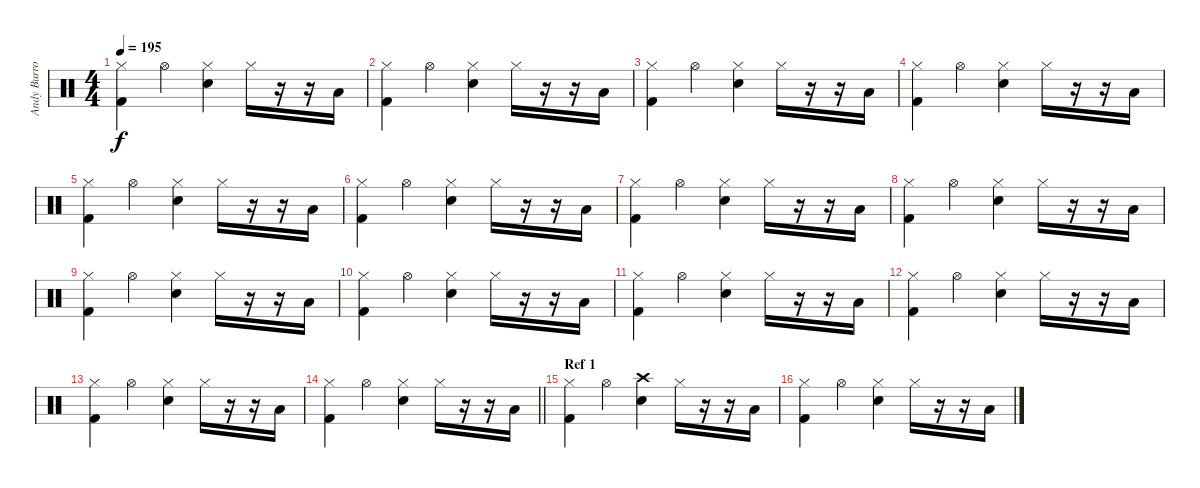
\track ("Andy Burrows (drums)" "Andy Burro") {instrument percussion}
\staff {score}
\articulation defaults
\ts (4 4)
\tempo 195
\clef neutral
\ks c
("Hi-Hat (closed)" "Kick (hit) 2").4{dy f} "Hi-Hat (open)".4 ("Hi-Hat (closed)" "Electric Snare (hit)").4 "Hi-Hat (closed)".16 r.16 r.16 "Low Floor Tom (hit)".16 |
("Hi-Hat (closed)" "Kick (hit) 2").4 "Hi-Hat (open)".4 ("Hi-Hat (closed)" "Electric Snare (hit)").4 "Hi-Hat (closed)".16 r.16 r.16 "Low Floor Tom (hit)".16 |
("Hi-Hat (closed)" "Kick (hit) 2").4 "Hi-Hat (open)".4 ("Hi-Hat (closed)" "Electric Snare (hit)").4 "Hi-Hat (closed)".16 r.16 r.16 "Low Floor Tom (hit)".16 |
("Hi-Hat (closed)" "Kick (hit) 2").4 "Hi-Hat (open)".4 ("Hi-Hat (closed)" "Electric Snare (hit)").4 "Hi-Hat (closed)".16 r.16 r.16 "Low Floor Tom (hit)".16 |
("Hi-Hat (closed)" "Kick (hit) 2").4 "Hi-Hat (open)".4 ("Hi-Hat (closed)" "Electric Snare (hit)").4 "Hi-Hat (closed)".16 r.16 r.16 "Low Floor Tom (hit)".16 |
("Hi-Hat (closed)" "Kick (hit) 2").4 "Hi-Hat (open)".4 ("Hi-Hat (closed)" "Electric Snare (hit)").4 "Hi-Hat (closed)".16 r.16 r.16 "Low Floor Tom (hit)".16 |
("Hi-Hat (closed)" "Kick (hit) 2").4 "Hi-Hat (open)".4 ("Hi-Hat (closed)" "Electric Snare (hit)").4 "Hi-Hat (closed)".16 r.16 r.16 "Low Floor Tom (hit)".16 |
("Hi-Hat (closed)" "Kick (hit) 2").4 "Hi-Hat (open)".4 ("Hi-Hat (closed)" "Electric Snare (hit)").4 "Hi-Hat (closed)".16 r.16 r.16 "Low Floor Tom (hit)".16 |
("Hi-Hat (closed)" "Kick (hit) 2").4 "Hi-Hat (open)".4 ("Hi-Hat (closed)" "Electric Snare (hit)").4 "Hi-Hat (closed)".16 r.16 r.16 "Low Floor Tom (hit)".16 |
("Hi-Hat (closed)" "Kick (hit) 2").4 "Hi-Hat (open)".4 ("Hi-Hat (closed)" "Electric Snare (hit)").4 "Hi-Hat (closed)".16 r.16 r.16 "Low Floor Tom (hit)".16 |
("Hi-Hat (closed)" "Kick (hit) 2").4 "Hi-Hat (open)".4 ("Hi-Hat (closed)" "Electric Snare (hit)").4 "Hi-Hat (closed)".16 r.16 r.16 "Low Floor Tom (hit)".16 |
("Hi-Hat (closed)" "Kick (hit) 2").4 "Hi-Hat (open)".4 ("Hi-Hat (closed)" "Electric Snare (hit)").4 "Hi-Hat (closed)".16 r.16 r.16 "Low Floor Tom (hit)".16 |
("Hi-Hat (closed)" "Kick (hit) 2").4 "Hi-Hat (open)".4 ("Hi-Hat (closed)" "Electric Snare (hit)").4 "Hi-Hat (closed)".16 r.16 r.16 "Low Floor Tom (hit)".16 |
\barLineRight lightlight
("Hi-Hat (closed)" "Kick (hit) 2").4 "Hi-Hat (open)".4 ("Hi-Hat (closed)" "Electric Snare (hit)").4 "Hi-Hat (closed)".16 r.16 r.16 "Low Floor Tom (hit)".16 |
\section ("" "Ref 1")
("Hi-Hat (closed)" "Kick (hit) 2").4 "Hi-Hat (open)".4 ("Crash high (hit)" "Electric Snare (hit)").4 "Hi-Hat (closed)".16 r.16 r.16 "Low Floor Tom (hit)".16 |
("Hi-Hat (closed)" "Kick (hit) 2").4 "Hi-Hat (open)".4 ("Hi-Hat (closed)" "Electric Snare (hit)").4 "Hi-Hat (closed)".16 r.16 r.16 "Low Floor Tom (hit)".16
